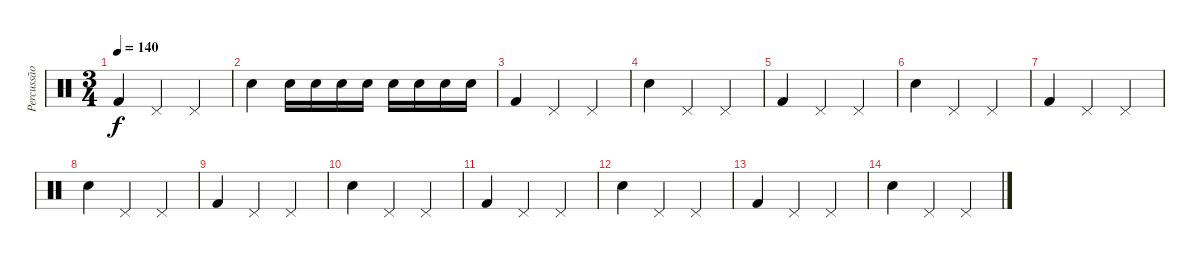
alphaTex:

\track ("Percussão" "Percussão") {instrument percussion}
\staff {score}
\articulation defaults
\ts (3 4)
\tempo 140
\clef neutral
\ks c "Kick (hit) 2".4{dy f} "Pedal Hi-Hat (hit)".4 "Pedal Hi-Hat (hit)".4
|
"Electric Snare (hit)".4 "Electric Snare (hit)".16 "Electric Snare (hit)".16 "Electric Snare (hit)".16 "Electric Snare (hit)".16 "Electric Snare (hit)".16 "Electric Snare (hit)".16 "Electric Snare (hit)".16 "Electric Snare (hit)".16 |
"Kick (hit) 2".4 "Pedal Hi-Hat (hit)".4 "Pedal Hi-Hat (hit)".4 |
"Electric Snare (hit)".4 "Pedal Hi-Hat (hit)".4 "Pedal Hi-Hat (hit)".4 |
"Kick (hit) 2".4 "Pedal Hi-Hat (hit)".4 "Pedal Hi-Hat (hit)".4 |
"Electric Snare (hit)".4 "Pedal Hi-Hat (hit)".4 "Pedal Hi-Hat (hit)".4 |
"Kick (hit) 2".4{volume 6} "Pedal Hi-Hat (hit)".4 "Pedal Hi-Hat (hit)".4 |
"Electric Snare (hit)".4 "Pedal Hi-Hat (hit)".4 "Pedal Hi-Hat (hit)".4 |
"Kick (hit) 2".4 "Pedal Hi-Hat (hit)".4 "Pedal Hi-Hat (hit)".4 |
"Electric Snare (hit)".4 "Pedal Hi-Hat (hit)".4 "Pedal Hi-Hat (hit)".4 |
"Kick (hit) 2".4{volume 2} "Pedal Hi-Hat (hit)".4 "Pedal Hi-Hat (hit)".4 |
"Electric Snare (hit)".4 "Pedal Hi-Hat (hit)".4 "Pedal Hi-Hat (hit)".4 |
"Kick (hit) 2".4 "Pedal Hi-Hat (hit)".4 "Pedal Hi-Hat (hit)".4 |
"Electric Snare (hit)".4 "Pedal Hi-Hat (hit)".4 "Pedal Hi-Hat (hit)".4
